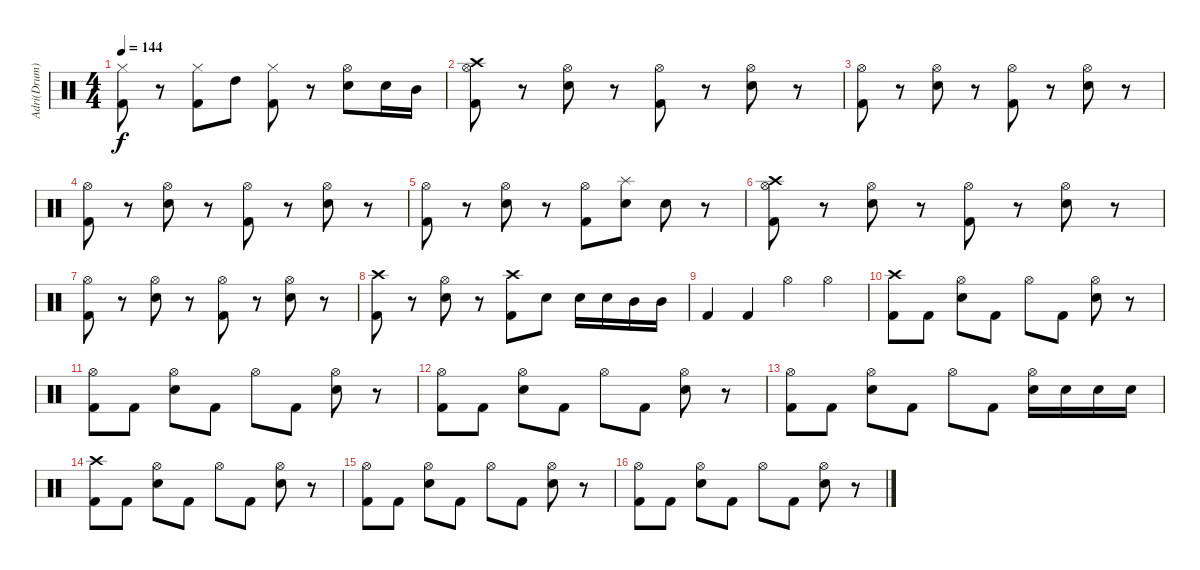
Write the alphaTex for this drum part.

\track ("Adri(Drum)" "Adri(Drum)") {instrument percussion}
\staff {score}
\articulation defaults
\ts (4 4)
\tempo 144
\clef neutral
\ks c
("Hi-Hat (closed)" "Kick (hit) 2").8{dy f} r.8 ("Hi-Hat (closed)" "Kick (hit) 2").8 "High Tom (hit)".8 ("Hi-Hat (closed)" "Kick (hit) 2").8 r.8 ("Hi-Hat (open)" "Electric Snare (hit)").8 "Electric Snare (hit)".16 "Mid Tom (hit)".16 |
("Crash high (hit)" "Hi-Hat (open)" "Kick (hit) 2").8 r.8 ("Hi-Hat (open)" "Electric Snare (hit)").8 r.8 ("Hi-Hat (open)" "Kick (hit) 2").8 r.8 ("Hi-Hat (open)" "Electric Snare (hit)").8 r.8 |
("Hi-Hat (open)" "Kick (hit) 2").8 r.8 ("Hi-Hat (open)" "Electric Snare (hit)").8 r.8 ("Hi-Hat (open)" "Kick (hit) 2").8 r.8 ("Hi-Hat (open)" "Electric Snare (hit)").8 r.8 |
("Hi-Hat (open)" "Kick (hit) 2").8 r.8 ("Hi-Hat (open)" "Electric Snare (hit)").8 r.8 ("Hi-Hat (open)" "Kick (hit) 2").8 r.8 ("Hi-Hat (open)" "Electric Snare (hit)").8 r.8 |
("Hi-Hat (open)" "Kick (hit) 2").8 r.8 ("Hi-Hat (open)" "Electric Snare (hit)").8 r.8 ("Hi-Hat (open)" "Kick (hit) 2").8 ("Splash (hit)" "Electric Snare (hit)").8 "Electric Snare (hit)".8 r.8 |
("Crash high (hit)" "Hi-Hat (open)" "Kick (hit) 2").8 r.8 ("Hi-Hat (open)" "Electric Snare (hit)").8 r.8 ("Hi-Hat (open)" "Kick (hit) 2").8 r.8 ("Hi-Hat (open)" "Electric Snare (hit)").8 r.8 |
("Hi-Hat (open)" "Kick (hit) 2").8 r.8 ("Hi-Hat (open)" "Electric Snare (hit)").8 r.8 ("Hi-Hat (open)" "Kick (hit) 2").8 r.8 ("Hi-Hat (open)" "Electric Snare (hit)").8 r.8 |
("Crash high (hit)" "Kick (hit) 2").8 r.8 ("Hi-Hat (open)" "Electric Snare (hit)").8 r.8 ("Crash high (hit)" "Kick (hit) 2").8 "Electric Snare (hit)".8 "Electric Snare (hit)".16 "Electric Snare (hit)".16 "Mid Tom (hit)".16 "Mid Tom (hit)".16 |
"Kick (hit) 2".4 "Kick (hit) 2".4 "Hi-Hat (open)".4 "Hi-Hat (open)".4 |
("Crash high (hit)" "Kick (hit) 2").8 "Kick (hit) 2".8 ("Hi-Hat (open)" "Electric Snare (hit)").8 "Kick (hit) 2".8 "Hi-Hat (open)".8 "Kick (hit) 2".8 ("Hi-Hat (open)" "Electric Snare (hit)").8 r.8 |
("Hi-Hat (open)" "Kick (hit) 2").8 "Kick (hit) 2".8 ("Hi-Hat (open)" "Electric Snare (hit)").8 "Kick (hit) 2".8 "Hi-Hat (open)".8 "Kick (hit) 2".8 ("Hi-Hat (open)" "Electric Snare (hit)").8 r.8 |
("Hi-Hat (open)" "Kick (hit) 2").8 "Kick (hit) 2".8 ("Hi-Hat (open)" "Electric Snare (hit)").8 "Kick (hit) 2".8 "Hi-Hat (open)".8 "Kick (hit) 2".8 ("Hi-Hat (open)" "Electric Snare (hit)").8 r.8 |
("Hi-Hat (open)" "Kick (hit) 2").8 "Kick (hit) 2".8 ("Hi-Hat (open)" "Electric Snare (hit)").8 "Kick (hit) 2".8 "Hi-Hat (open)".8 "Kick (hit) 2".8 ("Hi-Hat (open)" "Electric Snare (hit)").16 "Electric Snare (hit)".16 "Electric Snare (hit)".16 "Electric Snare (hit)".16 |
("Crash high (hit)" "Kick (hit) 2").8 "Kick (hit) 2".8 ("Hi-Hat (open)" "Electric Snare (hit)").8 "Kick (hit) 2".8 "Hi-Hat (open)".8 "Kick (hit) 2".8 ("Hi-Hat (open)" "Electric Snare (hit)").8 r.8 |
("Hi-Hat (open)" "Kick (hit) 2").8 "Kick (hit) 2".8 ("Hi-Hat (open)" "Electric Snare (hit)").8 "Kick (hit) 2".8 "Hi-Hat (open)".8 "Kick (hit) 2".8 ("Hi-Hat (open)" "Electric Snare (hit)").8 r.8 |
("Hi-Hat (open)" "Kick (hit) 2").8 "Kick (hit) 2".8 ("Hi-Hat (open)" "Electric Snare (hit)").8 "Kick (hit) 2".8 "Hi-Hat (open)".8 "Kick (hit) 2".8 ("Hi-Hat (open)" "Electric Snare (hit)").8 r.8
